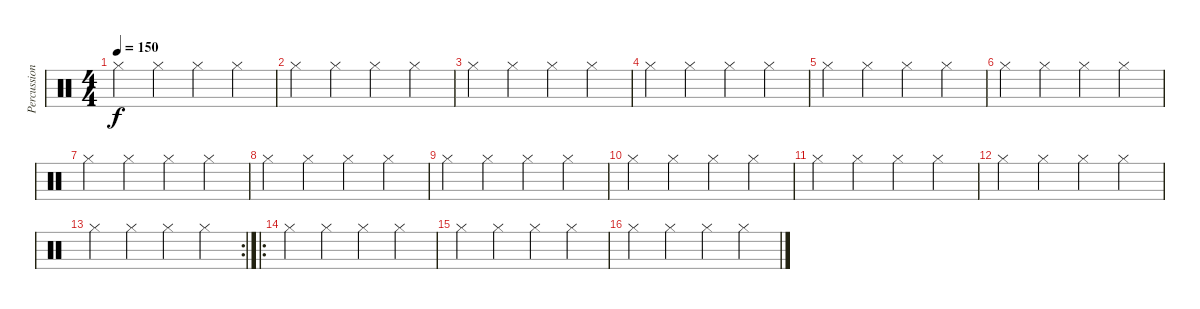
\track ("Percussioni" "Percussion") {instrument percussion}
\staff {score}
\articulation defaults
\ts (4 4)
\tempo 150
\clef neutral
\ks c "Hi-Hat (closed)".4{dy f} "Hi-Hat (closed)".4 "Hi-Hat (closed)".4 "Hi-Hat (closed)".4
|
"Hi-Hat (closed)".4 "Hi-Hat (closed)".4 "Hi-Hat (closed)".4 "Hi-Hat (closed)".4 |
"Hi-Hat (closed)".4 "Hi-Hat (closed)".4 "Hi-Hat (closed)".4 "Hi-Hat (closed)".4 |
"Hi-Hat (closed)".4 "Hi-Hat (closed)".4 "Hi-Hat (closed)".4 "Hi-Hat (closed)".4 |
"Hi-Hat (closed)".4 "Hi-Hat (closed)".4 "Hi-Hat (closed)".4 "Hi-Hat (closed)".4 |
"Hi-Hat (closed)".4 "Hi-Hat (closed)".4 "Hi-Hat (closed)".4 "Hi-Hat (closed)".4 |
"Hi-Hat (closed)".4 "Hi-Hat (closed)".4 "Hi-Hat (closed)".4 "Hi-Hat (closed)".4 |
"Hi-Hat (closed)".4 "Hi-Hat (closed)".4 "Hi-Hat (closed)".4 "Hi-Hat (closed)".4 |
"Hi-Hat (closed)".4 "Hi-Hat (closed)".4 "Hi-Hat (closed)".4 "Hi-Hat (closed)".4 |
"Hi-Hat (closed)".4 "Hi-Hat (closed)".4 "Hi-Hat (closed)".4 "Hi-Hat (closed)".4 |
"Hi-Hat (closed)".4 "Hi-Hat (closed)".4 "Hi-Hat (closed)".4 "Hi-Hat (closed)".4 |
"Hi-Hat (closed)".4 "Hi-Hat (closed)".4 "Hi-Hat (closed)".4 "Hi-Hat (closed)".4 |
\rc 2 "Hi-Hat (closed)".4 "Hi-Hat (closed)".4 "Hi-Hat (closed)".4 "Hi-Hat (closed)".4
|
\ro "Hi-Hat (closed)".4 "Hi-Hat (closed)".4 "Hi-Hat (closed)".4 "Hi-Hat (closed)".4
|
"Hi-Hat (closed)".4 "Hi-Hat (closed)".4 "Hi-Hat (closed)".4 "Hi-Hat (closed)".4 |
"Hi-Hat (closed)".4 "Hi-Hat (closed)".4 "Hi-Hat (closed)".4 "Hi-Hat (closed)".4
